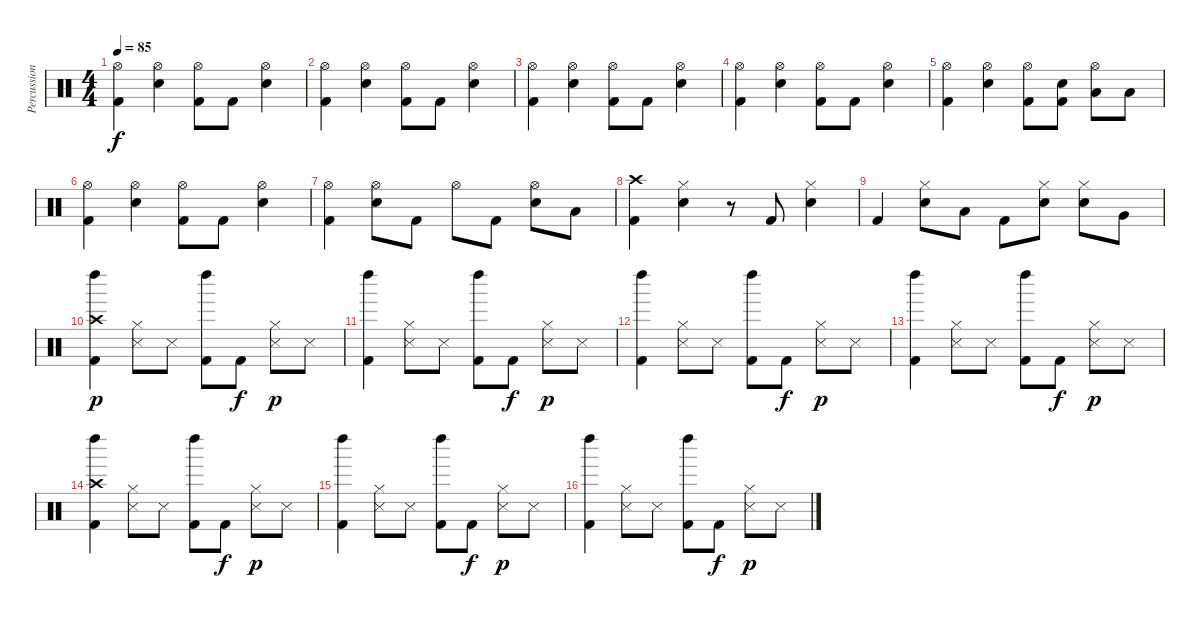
\track ("Percussion" "Percussion") {instrument percussion}
\staff {score}
\articulation defaults
\ts (4 4)
\tempo 85
\clef neutral
\ks c
("Hi-Hat (open)" "Kick (hit) 2").4{dy f} ("Hi-Hat (open)" "Snare (hit) 2").4 ("Hi-Hat (open)" "Kick (hit) 2").8 "Kick (hit) 2".8 ("Hi-Hat (open)" "Snare (hit) 2").4 |
("Hi-Hat (open)" "Kick (hit) 2").4 ("Hi-Hat (open)" "Snare (hit) 2").4 ("Hi-Hat (open)" "Kick (hit) 2").8 "Kick (hit) 2".8 ("Hi-Hat (open)" "Snare (hit) 2").4 |
("Hi-Hat (open)" "Kick (hit) 2").4 ("Hi-Hat (open)" "Snare (hit) 2").4 ("Hi-Hat (open)" "Kick (hit) 2").8 "Kick (hit) 2".8 ("Hi-Hat (open)" "Snare (hit) 2").4 |
("Hi-Hat (open)" "Kick (hit) 2").4 ("Hi-Hat (open)" "Snare (hit) 2").4 ("Hi-Hat (open)" "Kick (hit) 2").8 "Kick (hit) 2".8 ("Hi-Hat (open)" "Snare (hit) 2").4 |
("Hi-Hat (open)" "Kick (hit) 2").4 ("Hi-Hat (open)" "Snare (hit) 2").4 ("Hi-Hat (open)" "Kick (hit) 2").8 ("Snare (hit) 2" "Kick (hit) 2").8 ("Hi-Hat (open)" "Low Tom (hit)").8 "Low Tom (hit)".8 |
("Hi-Hat (open)" "Kick (hit) 2").4 ("Hi-Hat (open)" "Snare (hit) 2").4 ("Hi-Hat (open)" "Kick (hit) 2").8 "Kick (hit) 2".8 ("Hi-Hat (open)" "Snare (hit) 2").4 |
("Hi-Hat (open)" "Kick (hit) 2").4 ("Hi-Hat (open)" "Snare (hit) 2").8 "Kick (hit) 2".8 "Hi-Hat (open)".8 "Kick (hit) 2".8 ("Hi-Hat (open)" "Snare (hit) 2").8 "Low Tom (hit)".8 |
("Crash high (hit)" "Kick (hit) 2").4 ("Hi-Hat (closed)" "Snare (hit) 2").4 r.8 "Kick (hit) 2".8 ("Hi-Hat (closed)" "Snare (hit) 2").4 |
"Kick (hit) 2".4 ("Hi-Hat (closed)" "Snare (hit) 2").8 "Low Tom (hit)".8 "Kick (hit) 2".8 ("Hi-Hat (closed)" "Snare (hit) 2").8 ("Hi-Hat (closed)" "Snare (hit) 2").8 "Very Low Tom (hit)".8 |
("Crash high (hit)" "Left Maraca (hit)" "Kick (hit) 2").4{dy p} ("Hi-Hat (closed)" "Metronome (hit)").8 "Metronome (hit)".8 ("Left Maraca (hit)" "Kick (hit) 2").8 "Kick (hit) 2".8{dy f} ("Hi-Hat (closed)" "Metronome (hit)").8{dy p} "Metronome (hit)".8 |
("Left Maraca (hit)" "Kick (hit) 2").4 ("Hi-Hat (closed)" "Metronome (hit)").8 "Metronome (hit)".8 ("Left Maraca (hit)" "Kick (hit) 2").8 "Kick (hit) 2".8{dy f} ("Hi-Hat (closed)" "Metronome (hit)").8{dy p} "Metronome (hit)".8 |
("Left Maraca (hit)" "Kick (hit) 2").4 ("Hi-Hat (closed)" "Metronome (hit)").8 "Metronome (hit)".8 ("Left Maraca (hit)" "Kick (hit) 2").8 "Kick (hit) 2".8{dy f} ("Hi-Hat (closed)" "Metronome (hit)").8{dy p} "Metronome (hit)".8 |
("Left Maraca (hit)" "Kick (hit) 2").4 ("Hi-Hat (closed)" "Metronome (hit)").8 "Metronome (hit)".8 ("Left Maraca (hit)" "Kick (hit) 2").8 "Kick (hit) 2".8{dy f} ("Hi-Hat (closed)" "Metronome (hit)").8{dy p} "Metronome (hit)".8 |
("Crash high (hit)" "Left Maraca (hit)" "Kick (hit) 2").4 ("Hi-Hat (closed)" "Metronome (hit)").8 "Metronome (hit)".8 ("Left Maraca (hit)" "Kick (hit) 2").8 "Kick (hit) 2".8{dy f} ("Hi-Hat (closed)" "Metronome (hit)").8{dy p} "Metronome (hit)".8 |
("Left Maraca (hit)" "Kick (hit) 2").4 ("Hi-Hat (closed)" "Metronome (hit)").8 "Metronome (hit)".8 ("Left Maraca (hit)" "Kick (hit) 2").8 "Kick (hit) 2".8{dy f} ("Hi-Hat (closed)" "Metronome (hit)").8{dy p} "Metronome (hit)".8 |
("Left Maraca (hit)" "Kick (hit) 2").4 ("Hi-Hat (closed)" "Metronome (hit)").8 "Metronome (hit)".8 ("Left Maraca (hit)" "Kick (hit) 2").8 "Kick (hit) 2".8{dy f} ("Hi-Hat (closed)" "Metronome (hit)").8{dy p} "Metronome (hit)".8
